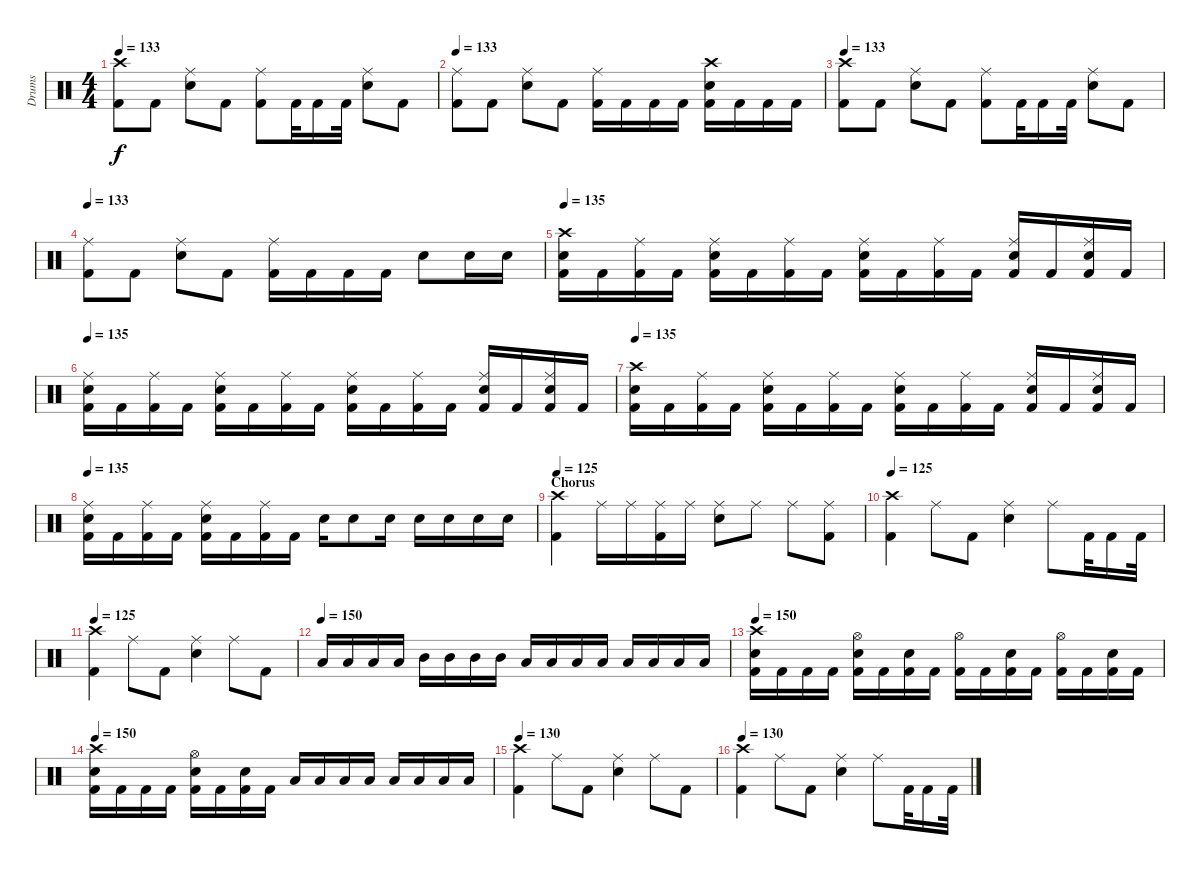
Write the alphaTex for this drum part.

\track ("Drums" "Drums") {instrument percussion}
\staff {score}
\articulation defaults
\ts (4 4)
\tempo 133
\clef neutral
\ks c
("Crash high (hit)" "Kick (hit) 2").8{dy f} "Kick (hit) 2".8 ("Ride (middle)" "Snare (hit) 2").8 "Kick (hit) 2".8 ("Ride (middle)" "Kick (hit) 2").8 "Kick (hit) 2".32 "Kick (hit) 2".16 "Kick (hit) 2".32 ("Ride (middle)" "Snare (hit) 2").8 "Kick (hit) 2".8 |
\tempo 133
("Ride (middle)" "Kick (hit) 2").8 "Kick (hit) 2".8 ("Ride (middle)" "Snare (hit) 2").8 "Kick (hit) 2".8 ("Ride (middle)" "Kick (hit) 2").16 "Kick (hit) 2".16 "Kick (hit) 2".16 "Kick (hit) 2".16 ("Crash high (hit)" "Snare (hit) 2" "Kick (hit) 2").16 "Kick (hit) 2".16 "Kick (hit) 2".16 "Kick (hit) 2".16 |
\tempo 133
("Crash high (hit)" "Kick (hit) 2").8 "Kick (hit) 2".8 ("Ride (middle)" "Snare (hit) 2").8 "Kick (hit) 2".8 ("Ride (middle)" "Kick (hit) 2").8 "Kick (hit) 2".32 "Kick (hit) 2".16 "Kick (hit) 2".32 ("Ride (middle)" "Snare (hit) 2").8 "Kick (hit) 2".8 |
\tempo 133
("Ride (middle)" "Kick (hit) 2").8 "Kick (hit) 2".8 ("Ride (middle)" "Snare (hit) 2").8 "Kick (hit) 2".8 ("Ride (middle)" "Kick (hit) 2").16 "Kick (hit) 2".16 "Kick (hit) 2".16 "Kick (hit) 2".16 "Snare (hit) 2".8 "Snare (hit) 2".16 "Snare (hit) 2".16 |
\tempo 135
("Crash high (hit)" "Snare (hit) 2" "Kick (hit) 2").16 "Kick (hit) 2".16 ("Ride (middle)" "Kick (hit) 2").16 "Kick (hit) 2".16 ("Ride (middle)" "Snare (hit) 2" "Kick (hit) 2").16 "Kick (hit) 2".16 ("Ride (middle)" "Kick (hit) 2").16 "Kick (hit) 2".16 ("Ride (middle)" "Snare (hit) 2" "Kick (hit) 2").16 "Kick (hit) 2".16 ("Ride (middle)" "Kick (hit) 2").16 "Kick (hit) 2".16 ("Ride (middle)" "Snare (hit) 2" "Kick (hit) 2").16 "Kick (hit) 2".16 ("Ride (middle)" "Snare (hit) 2" "Kick (hit) 2").16 "Kick (hit) 2".16 |
\tempo 135
("Ride (middle)" "Snare (hit) 2" "Kick (hit) 2").16 "Kick (hit) 2".16 ("Ride (middle)" "Kick (hit) 2").16 "Kick (hit) 2".16 ("Ride (middle)" "Snare (hit) 2" "Kick (hit) 2").16 "Kick (hit) 2".16 ("Ride (middle)" "Kick (hit) 2").16 "Kick (hit) 2".16 ("Ride (middle)" "Snare (hit) 2" "Kick (hit) 2").16 "Kick (hit) 2".16 ("Ride (middle)" "Kick (hit) 2").16 "Kick (hit) 2".16 ("Ride (middle)" "Snare (hit) 2" "Kick (hit) 2").16 "Kick (hit) 2".16 ("Ride (middle)" "Snare (hit) 2" "Kick (hit) 2").16 "Kick (hit) 2".16 |
\tempo 135
("Crash high (hit)" "Snare (hit) 2" "Kick (hit) 2").16 "Kick (hit) 2".16 ("Ride (middle)" "Kick (hit) 2").16 "Kick (hit) 2".16 ("Ride (middle)" "Snare (hit) 2" "Kick (hit) 2").16 "Kick (hit) 2".16 ("Ride (middle)" "Kick (hit) 2").16 "Kick (hit) 2".16 ("Ride (middle)" "Snare (hit) 2" "Kick (hit) 2").16 "Kick (hit) 2".16 ("Ride (middle)" "Kick (hit) 2").16 "Kick (hit) 2".16 ("Ride (middle)" "Snare (hit) 2" "Kick (hit) 2").16 "Kick (hit) 2".16 ("Ride (middle)" "Snare (hit) 2" "Kick (hit) 2").16 "Kick (hit) 2".16 |
\tempo 135
("Ride (middle)" "Snare (hit) 2" "Kick (hit) 2").16 "Kick (hit) 2".16 ("Ride (middle)" "Kick (hit) 2").16 "Kick (hit) 2".16 ("Ride (middle)" "Snare (hit) 2" "Kick (hit) 2").16 "Kick (hit) 2".16 ("Ride (middle)" "Kick (hit) 2").16 "Kick (hit) 2".16 "Snare (hit) 2".16 "Snare (hit) 2".8 "Snare (hit) 2".16 "Snare (hit) 2".16 "Snare (hit) 2".16 "Snare (hit) 2".16 "Snare (hit) 2".16 |
\section ("" "Chorus")
\tempo 125
("Crash high (hit)" "Kick (hit) 2").4 "Ride (middle)".16 "Ride (middle)".16 ("Ride (middle)" "Kick (hit) 2").16 "Ride (middle)".16 ("Ride (middle)" "Snare (hit) 2").8 "Ride (middle)".8 "Ride (middle)".8 ("Ride (middle)" "Kick (hit) 2").8 |
\tempo 125
("Crash high (hit)" "Kick (hit) 2").4 "Ride (middle)".8 "Kick (hit) 2".8 ("Ride (middle)" "Snare (hit) 2").4 "Ride (middle)".8 "Kick (hit) 2".32 "Kick (hit) 2".16 "Kick (hit) 2".32 |
\tempo 125
("Crash high (hit)" "Kick (hit) 2").4 "Ride (middle)".8 "Kick (hit) 2".8 ("Ride (middle)" "Snare (hit) 2").4 "Ride (middle)".8 "Kick (hit) 2".8 |
\tempo (150)
"Low Tom (hit)".16 "Low Tom (hit)".16 "Low Tom (hit)".16 "Low Tom (hit)".16 "Mid Tom (hit)".16 "Mid Tom (hit)".16 "Mid Tom (hit)".16 "Mid Tom (hit)".16 "Low Tom (hit)".16 "Low Tom (hit)".16 "Low Tom (hit)".16 "Low Tom (hit)".16 "Low Floor Tom (hit)".16 "Low Floor Tom (hit)".16 "Low Floor Tom (hit)".16 "Low Floor Tom (hit)".16 |
\tempo 150
("Crash high (hit)" "Snare (hit) 2" "Kick (hit) 2").16 "Kick (hit) 2".16 "Kick (hit) 2".16 "Kick (hit) 2".16 ("Hi-Hat (open)" "Snare (hit) 2" "Kick (hit) 2").16 "Kick (hit) 2".16 ("Snare (hit) 2" "Kick (hit) 2").16 "Kick (hit) 2".16 ("Hi-Hat (open)" "Kick (hit) 2").16 "Kick (hit) 2".16 ("Snare (hit) 2" "Kick (hit) 2").16 "Kick (hit) 2".16 ("Hi-Hat (open)" "Kick (hit) 2").16 "Kick (hit) 2".16 ("Snare (hit) 2" "Kick (hit) 2").16 "Kick (hit) 2".16 |
\tempo 150
("Crash high (hit)" "Snare (hit) 2" "Kick (hit) 2").16 "Kick (hit) 2".16 "Kick (hit) 2".16 "Kick (hit) 2".16 ("Hi-Hat (open)" "Snare (hit) 2" "Kick (hit) 2").16 "Kick (hit) 2".16 ("Snare (hit) 2" "Kick (hit) 2").16 "Kick (hit) 2".16 "Low Tom (hit)".16 "Low Tom (hit)".16 "Low Tom (hit)".16 "Low Tom (hit)".16 "Low Floor Tom (hit)".16 "Low Floor Tom (hit)".16 "Low Floor Tom (hit)".16 "Low Floor Tom (hit)".16 |
\tempo 130
("Crash high (hit)" "Kick (hit) 2").4 "Ride (middle)".8 "Kick (hit) 2".8 ("Ride (middle)" "Snare (hit) 2").4 "Ride (middle)".8 "Kick (hit) 2".8 |
\tempo 130
("Crash high (hit)" "Kick (hit) 2").4 "Ride (middle)".8 "Kick (hit) 2".8 ("Ride (middle)" "Snare (hit) 2").4 "Ride (middle)".8 "Kick (hit) 2".32 "Kick (hit) 2".16 "Kick (hit) 2".32
